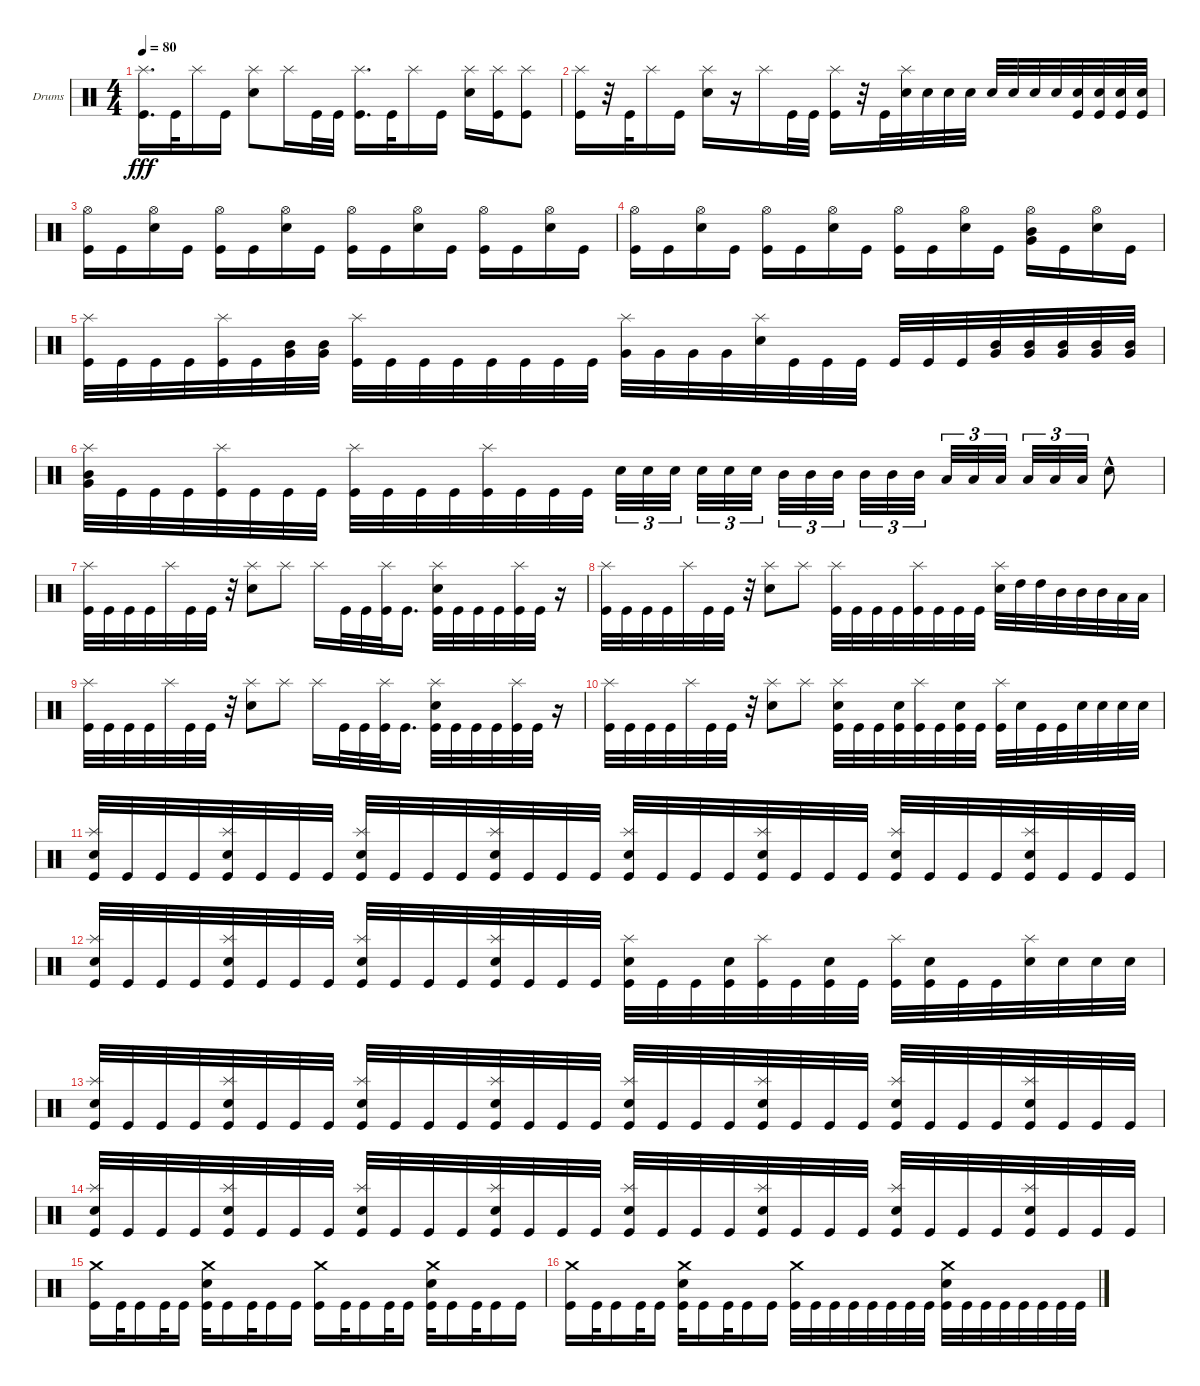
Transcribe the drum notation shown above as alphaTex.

\defaultSystemsLayout 4
\bracketExtendMode groupsimilarinstruments
\firstSystemTrackNameOrientation horizontal
\otherSystemsTrackNameOrientation horizontal
\track ("Drumkit" "Drums") {instrument percussion}
\staff {score}
\articulation defaults
\ts (4 4)
\tempo 80
\clef neutral
\ks c
("Kick (hit)" "Splash (hit)").16{d dy fff} "Kick (hit)".32 "Splash (hit)".16 "Kick (hit)".16 ("Snare (hit) 2" "Splash (hit)").8 "Splash (hit)".16 "Kick (hit)".32 "Kick (hit)".32 ("Kick (hit)" "Splash (hit)").16{d} "Kick (hit)".32 "Splash (hit)".16 "Kick (hit)".16 ("Snare (hit) 2" "Splash (hit)").16 ("Kick (hit)" "Splash (hit)").16 ("Kick (hit)" "Splash (hit)").8 |
("Kick (hit)" "Splash (hit)").16 r.32 "Kick (hit)".32 "Splash (hit)".16 "Kick (hit)".16 ("Snare (hit) 2" "Splash (hit)").16 r.16 "Splash (hit)".16 "Kick (hit)".32 "Kick (hit)".32 ("Kick (hit)" "Splash (hit)").16 r.32 "Kick (hit)".32 ("Snare (hit) 2" "Splash (hit)").32 "Snare (hit) 2".32 "Snare (hit) 2".32 "Snare (hit) 2".32 "Snare (hit) 2".32 "Snare (hit) 2".32 "Snare (hit) 2".32 "Snare (hit) 2".32 ("Snare (hit) 2" "Kick (hit)").32 ("Kick (hit)" "Snare (hit) 2").32 ("Kick (hit)" "Snare (hit) 2").32 ("Kick (hit)" "Snare (hit) 2").32 |
("Kick (hit)" "Hi-Hat (open)").16 "Kick (hit)".16 ("Snare (hit) 2" "Hi-Hat (open)").16 "Kick (hit)".16 ("Kick (hit)" "Hi-Hat (open)").16 "Kick (hit)".16 ("Snare (hit) 2" "Hi-Hat (open)").16 "Kick (hit)".16 ("Kick (hit)" "Hi-Hat (open)").16 "Kick (hit)".16 ("Snare (hit) 2" "Hi-Hat (open)").16 "Kick (hit)".16 ("Kick (hit)" "Hi-Hat (open)").16 "Kick (hit)".16 ("Snare (hit) 2" "Hi-Hat (open)").16 "Kick (hit)".16 |
("Kick (hit)" "Hi-Hat (open)").16 "Kick (hit)".16 ("Snare (hit) 2" "Hi-Hat (open)").16 "Kick (hit)".16 ("Kick (hit)" "Hi-Hat (open)").16 "Kick (hit)".16 ("Snare (hit) 2" "Hi-Hat (open)").16 "Kick (hit)".16 ("Kick (hit)" "Hi-Hat (open)").16 "Kick (hit)".16 ("Snare (hit) 2" "Hi-Hat (open)").16 "Kick (hit)".16 ("Mid Tom (hit)" "Very Low Tom (hit)" "Hi-Hat (open)").16 "Kick (hit)".16 ("Snare (hit) 2" "Hi-Hat (open)").16 "Kick (hit)".16 |
("Kick (hit)" "Splash (hit)").32 "Kick (hit)".32 "Kick (hit)".32 "Kick (hit)".32 ("Kick (hit)" "Splash (hit)").32 "Kick (hit)".32 ("Mid Tom (hit)" "Very Low Tom (hit)").32 ("Mid Tom (hit)" "Very Low Tom (hit)").32 ("Kick (hit)" "Splash (hit)").32 "Kick (hit)".32 "Kick (hit)".32 "Kick (hit)".32 "Kick (hit)".32 "Kick (hit)".32 "Kick (hit)".32 "Kick (hit)".32 ("Splash (hit)" "Very Low Tom (hit)").32 "Very Low Tom (hit)".32 "Very Low Tom (hit)".32 "Very Low Tom (hit)".32 ("Splash (hit)" "Snare (hit) 2").32 "Kick (hit)".32 "Kick (hit)".32 "Kick (hit)".32 "Kick (hit)".32 "Kick (hit)".32 "Kick (hit)".32 ("Mid Tom (hit)" "Very Low Tom (hit)").32 ("Mid Tom (hit)" "Very Low Tom (hit)").32 ("Mid Tom (hit)" "Very Low Tom (hit)").32 ("Mid Tom (hit)" "Very Low Tom (hit)").32 ("Very Low Tom (hit)" "Mid Tom (hit)").32 |
("Splash (hit)" "Very Low Tom (hit)" "Mid Tom (hit)").32 "Kick (hit)".32 "Kick (hit)".32 "Kick (hit)".32 ("Kick (hit)" "Splash (hit)").32 "Kick (hit)".32 "Kick (hit)".32 "Kick (hit)".32 ("Kick (hit)" "Splash (hit)").32 "Kick (hit)".32 "Kick (hit)".32 "Kick (hit)".32 ("Kick (hit)" "Splash (hit)").32 "Kick (hit)".32 "Kick (hit)".32 "Kick (hit)".32 "Snare (hit) 2".32{tu (3 2)} "Snare (hit) 2".32{tu (3 2)} "Snare (hit) 2".32{tu (3 2)} "Snare (hit) 2".32{tu (3 2)} "Snare (hit) 2".32{tu (3 2)} "Snare (hit) 2".32{tu (3 2)} "Mid Tom (hit)".32{tu (3 2)} "Mid Tom (hit)".32{tu (3 2)} "Mid Tom (hit)".32{tu (3 2)} "Mid Tom (hit)".32{tu (3 2)} "Mid Tom (hit)".32{tu (3 2)} "Mid Tom (hit)".32{tu (3 2)} "Low Tom (hit)".32{tu (3 2)} "Low Tom (hit)".32{tu (3 2)} "Low Tom (hit)".32{tu (3 2)} "Low Tom (hit)".32{tu (3 2)} "Low Tom (hit)".32{tu (3 2)} "Low Tom (hit)".32{tu (3 2)} "Snare (hit) 2"{hac}.8 |
("Kick (hit)" "Splash (hit)").32 "Kick (hit)".32 "Kick (hit)".32 "Kick (hit)".32 "Splash (hit)".32 "Kick (hit)".32 "Kick (hit)".32 r.32 ("Snare (hit) 2" "Splash (hit)").8 "Splash (hit)".8 "Splash (hit)".16 "Kick (hit)".32 "Kick (hit)".32 ("Kick (hit)" "Splash (hit)").32 "Kick (hit)".16{d} ("Kick (hit)" "Splash (hit)" "Snare (hit) 2").32 "Kick (hit)".32 "Kick (hit)".32 "Kick (hit)".32 ("Kick (hit)" "Splash (hit)").32 "Kick (hit)".32 r.16 |
("Kick (hit)" "Splash (hit)").32 "Kick (hit)".32 "Kick (hit)".32 "Kick (hit)".32 "Splash (hit)".32 "Kick (hit)".32 "Kick (hit)".32 r.32 ("Snare (hit) 2" "Splash (hit)").8 "Splash (hit)".8 ("Splash (hit)" "Kick (hit)").32 "Kick (hit)".32 "Kick (hit)".32 "Kick (hit)".32 ("Kick (hit)" "Splash (hit)").32 "Kick (hit)".32 "Kick (hit)".32 "Kick (hit)".32 ("Splash (hit)" "Snare (hit) 2").32 "High Tom (hit)".32 "High Tom (hit)".32 "Mid Tom (hit)".32 "Mid Tom (hit)".32 "Mid Tom (hit)".32 "Low Tom (hit)".32 "Low Tom (hit)".32 |
("Kick (hit)" "Splash (hit)").32 "Kick (hit)".32 "Kick (hit)".32 "Kick (hit)".32 "Splash (hit)".32 "Kick (hit)".32 "Kick (hit)".32 r.32 ("Snare (hit) 2" "Splash (hit)").8 "Splash (hit)".8 "Splash (hit)".16 "Kick (hit)".32 "Kick (hit)".32 ("Kick (hit)" "Splash (hit)").32 "Kick (hit)".16{d} ("Kick (hit)" "Splash (hit)" "Snare (hit) 2").32 "Kick (hit)".32 "Kick (hit)".32 "Kick (hit)".32 ("Kick (hit)" "Splash (hit)").32 "Kick (hit)".32 r.16 |
("Kick (hit)" "Splash (hit)").32 "Kick (hit)".32 "Kick (hit)".32 "Kick (hit)".32 "Splash (hit)".32 "Kick (hit)".32 "Kick (hit)".32 r.32 ("Snare (hit) 2" "Splash (hit)").8 "Splash (hit)".8 ("Splash (hit)" "Kick (hit)" "Snare (hit) 2").32 "Kick (hit)".32 "Kick (hit)".32 ("Kick (hit)" "Snare (hit) 2").32 ("Kick (hit)" "Splash (hit)").32 "Kick (hit)".32 ("Kick (hit)" "Snare (hit) 2").32 "Kick (hit)".32 ("Splash (hit)" "Kick (hit)").32 "Snare (hit) 2".32 "Kick (hit)".32 "Kick (hit)".32 "Snare (hit) 2".32 "Snare (hit) 2".32 "Snare (hit) 2".32 "Snare (hit) 2".32 |
("Kick (hit)" "Snare (hit) 2" "Splash (hit)").32 "Kick (hit)".32 "Kick (hit)".32 "Kick (hit)".32 ("Kick (hit)" "Snare (hit) 2" "Splash (hit)").32 "Kick (hit)".32 "Kick (hit)".32 "Kick (hit)".32 ("Kick (hit)" "Snare (hit) 2" "Splash (hit)").32 "Kick (hit)".32 "Kick (hit)".32 "Kick (hit)".32 ("Kick (hit)" "Snare (hit) 2" "Splash (hit)").32 "Kick (hit)".32 "Kick (hit)".32 "Kick (hit)".32 ("Kick (hit)" "Snare (hit) 2" "Splash (hit)").32 "Kick (hit)".32 "Kick (hit)".32 "Kick (hit)".32 ("Kick (hit)" "Snare (hit) 2" "Splash (hit)").32 "Kick (hit)".32 "Kick (hit)".32 "Kick (hit)".32 ("Kick (hit)" "Snare (hit) 2" "Splash (hit)").32 "Kick (hit)".32 "Kick (hit)".32 "Kick (hit)".32 ("Kick (hit)" "Snare (hit) 2" "Splash (hit)").32 "Kick (hit)".32 "Kick (hit)".32 "Kick (hit)".32 |
("Kick (hit)" "Snare (hit) 2" "Splash (hit)").32 "Kick (hit)".32 "Kick (hit)".32 "Kick (hit)".32 ("Kick (hit)" "Snare (hit) 2" "Splash (hit)").32 "Kick (hit)".32 "Kick (hit)".32 "Kick (hit)".32 ("Kick (hit)" "Snare (hit) 2" "Splash (hit)").32 "Kick (hit)".32 "Kick (hit)".32 "Kick (hit)".32 ("Kick (hit)" "Snare (hit) 2" "Splash (hit)").32 "Kick (hit)".32 "Kick (hit)".32 "Kick (hit)".32 ("Kick (hit)" "Snare (hit) 2" "Splash (hit)").32 "Kick (hit)".32 "Kick (hit)".32 ("Kick (hit)" "Snare (hit) 2").32 ("Kick (hit)" "Splash (hit)").32 "Kick (hit)".32 ("Kick (hit)" "Snare (hit) 2").32 "Kick (hit)".32 ("Kick (hit)" "Splash (hit)").32 ("Kick (hit)" "Snare (hit) 2").32 "Kick (hit)".32 "Kick (hit)".32 ("Snare (hit) 2" "Splash (hit)").32 "Snare (hit) 2".32 "Snare (hit) 2".32 "Snare (hit) 2".32 |
("Kick (hit)" "Snare (hit) 2" "Splash (hit)").32 "Kick (hit)".32 "Kick (hit)".32 "Kick (hit)".32 ("Kick (hit)" "Snare (hit) 2" "Splash (hit)").32 "Kick (hit)".32 "Kick (hit)".32 "Kick (hit)".32 ("Kick (hit)" "Snare (hit) 2" "Splash (hit)").32 "Kick (hit)".32 "Kick (hit)".32 "Kick (hit)".32 ("Kick (hit)" "Snare (hit) 2" "Splash (hit)").32 "Kick (hit)".32 "Kick (hit)".32 "Kick (hit)".32 ("Kick (hit)" "Snare (hit) 2" "Splash (hit)").32 "Kick (hit)".32 "Kick (hit)".32 "Kick (hit)".32 ("Kick (hit)" "Snare (hit) 2" "Splash (hit)").32 "Kick (hit)".32 "Kick (hit)".32 "Kick (hit)".32 ("Kick (hit)" "Snare (hit) 2" "Splash (hit)").32 "Kick (hit)".32 "Kick (hit)".32 "Kick (hit)".32 ("Kick (hit)" "Snare (hit) 2" "Splash (hit)").32 "Kick (hit)".32 "Kick (hit)".32 "Kick (hit)".32 |
("Kick (hit)" "Snare (hit) 2" "Splash (hit)").32 "Kick (hit)".32 "Kick (hit)".32 "Kick (hit)".32 ("Kick (hit)" "Snare (hit) 2" "Splash (hit)").32 "Kick (hit)".32 "Kick (hit)".32 "Kick (hit)".32 ("Kick (hit)" "Snare (hit) 2" "Splash (hit)").32 "Kick (hit)".32 "Kick (hit)".32 "Kick (hit)".32 ("Kick (hit)" "Snare (hit) 2" "Splash (hit)").32 "Kick (hit)".32 "Kick (hit)".32 "Kick (hit)".32 ("Kick (hit)" "Snare (hit) 2" "Splash (hit)").32 "Kick (hit)".32 "Kick (hit)".32 "Kick (hit)".32 ("Kick (hit)" "Snare (hit) 2" "Splash (hit)").32 "Kick (hit)".32 "Kick (hit)".32 "Kick (hit)".32 ("Kick (hit)" "Snare (hit) 2" "Splash (hit)").32 "Kick (hit)".32 "Kick (hit)".32 "Kick (hit)".32 ("Kick (hit)" "Snare (hit) 2" "Splash (hit)").32 "Kick (hit)".32 "Kick (hit)".32 "Kick (hit)".32 |
("Kick (hit)" "Crash medium (hit)").16 "Kick (hit)".32 "Kick (hit)".16 "Kick (hit)".32 "Kick (hit)".16 ("Kick (hit)" "Crash medium (hit)" "Snare (hit) 2").32 "Kick (hit)".16 "Kick (hit)".32 "Kick (hit)".16 "Kick (hit)".16 ("Kick (hit)" "Crash medium (hit)").16 "Kick (hit)".32 "Kick (hit)".16 "Kick (hit)".32 "Kick (hit)".16 ("Kick (hit)" "Crash medium (hit)" "Snare (hit) 2").32 "Kick (hit)".16 "Kick (hit)".32 "Kick (hit)".16 "Kick (hit)".16 |
("Kick (hit)" "Crash medium (hit)").16 "Kick (hit)".32 "Kick (hit)".16 "Kick (hit)".32 "Kick (hit)".16 ("Kick (hit)" "Crash medium (hit)" "Snare (hit) 2").32 "Kick (hit)".16 "Kick (hit)".32 "Kick (hit)".16 "Kick (hit)".16 ("Kick (hit)" "Crash medium (hit)").32 "Kick (hit)".32 "Kick (hit)".32 "Kick (hit)".32 "Kick (hit)".32 "Kick (hit)".32 "Kick (hit)".32 "Kick (hit)".32 ("Kick (hit)" "Crash medium (hit)" "Snare (hit) 2").32 "Kick (hit)".32 "Kick (hit)".32 "Kick (hit)".32 "Kick (hit)".32 "Kick (hit)".32 "Kick (hit)".32 "Kick (hit)".32
